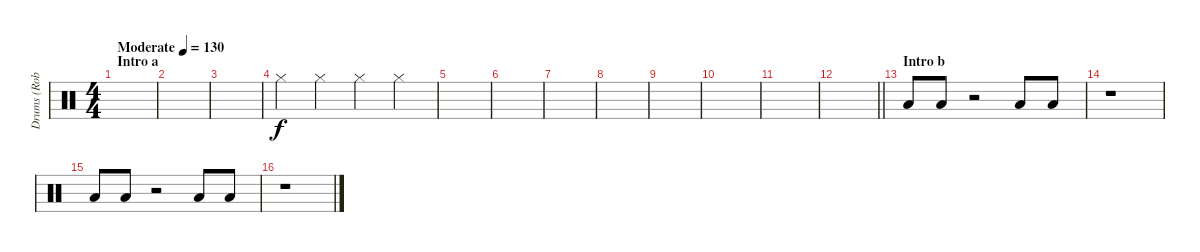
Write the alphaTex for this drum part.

\track ("Drums (Rob)" "Drums (Rob") {instrument percussion}
\staff {score}
\articulation defaults
\ts (4 4)
\section ("" "Intro a")
\tempo (130 "Moderate")
\clef neutral
\ks c
|
|
|
"Hi-Hat (closed)".4 "Hi-Hat (closed)".4 "Hi-Hat (closed)".4 "Hi-Hat (closed)".4 |
|
|
|
|
|
|
|
\barLineRight lightlight
|
\section ("" "Intro b")
"Low Floor Tom (hit)".8{dy f} "Low Floor Tom (hit)".8 r.2 "Low Floor Tom (hit)".8 "Low Floor Tom (hit)".8 |
r.1 |
"Low Floor Tom (hit)".8 "Low Floor Tom (hit)".8 r.2 "Low Floor Tom (hit)".8 "Low Floor Tom (hit)".8 |
r.1
